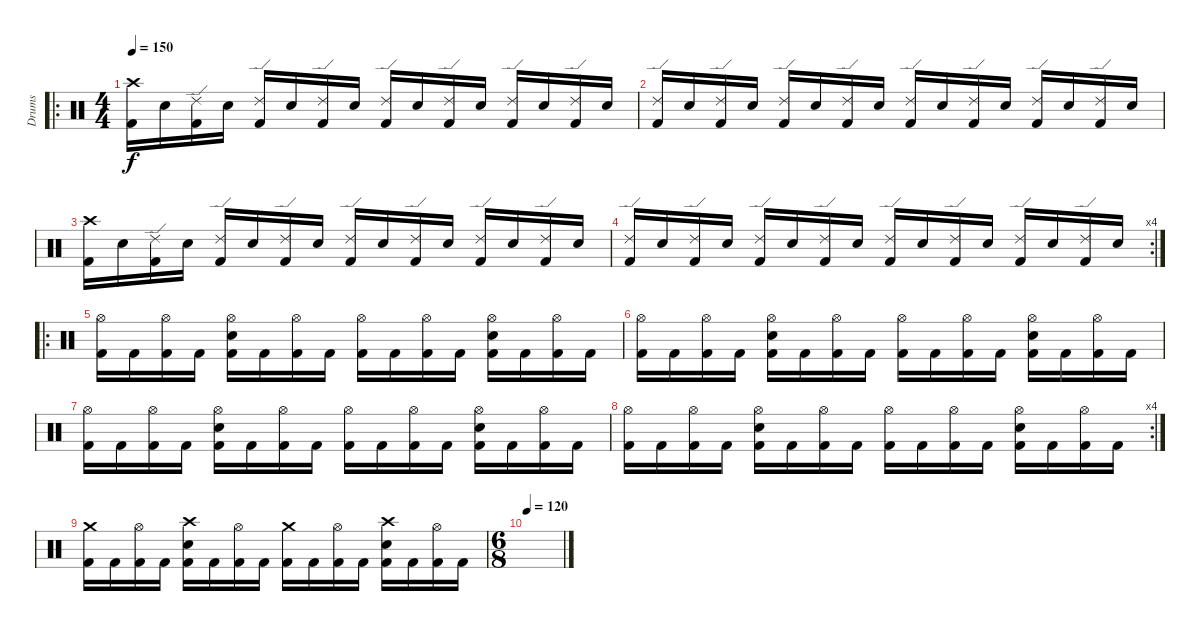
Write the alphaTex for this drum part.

\track ("Drums" "Drums") {instrument percussion}
\staff {score}
\articulation defaults
\ro
\ts (4 4)
\tempo 150
\clef neutral
\ks c
("Crash high (hit)" "Kick (hit) 2").16{dy f} "Electric Snare (hit)".16 ("Ride (edge) 2" "Kick (hit) 2").16 "Electric Snare (hit)".16 ("Ride (edge) 2" "Kick (hit) 2").16 "Electric Snare (hit)".16 ("Ride (edge) 2" "Kick (hit) 2").16 "Electric Snare (hit)".16 ("Ride (edge) 2" "Kick (hit) 2").16 "Electric Snare (hit)".16 ("Ride (edge) 2" "Kick (hit) 2").16 "Electric Snare (hit)".16 ("Ride (edge) 2" "Kick (hit) 2").16 "Electric Snare (hit)".16 ("Ride (edge) 2" "Kick (hit) 2").16 "Electric Snare (hit)".16 |
("Ride (edge) 2" "Kick (hit) 2").16 "Electric Snare (hit)".16 ("Ride (edge) 2" "Kick (hit) 2").16 "Electric Snare (hit)".16 ("Ride (edge) 2" "Kick (hit) 2").16 "Electric Snare (hit)".16 ("Ride (edge) 2" "Kick (hit) 2").16 "Electric Snare (hit)".16 ("Ride (edge) 2" "Kick (hit) 2").16 "Electric Snare (hit)".16 ("Ride (edge) 2" "Kick (hit) 2").16 "Electric Snare (hit)".16 ("Ride (edge) 2" "Kick (hit) 2").16 "Electric Snare (hit)".16 ("Ride (edge) 2" "Kick (hit) 2").16 "Electric Snare (hit)".16 |
("Crash high (hit)" "Kick (hit) 2").16 "Electric Snare (hit)".16 ("Ride (edge) 2" "Kick (hit) 2").16 "Electric Snare (hit)".16 ("Ride (edge) 2" "Kick (hit) 2").16 "Electric Snare (hit)".16 ("Ride (edge) 2" "Kick (hit) 2").16 "Electric Snare (hit)".16 ("Ride (edge) 2" "Kick (hit) 2").16 "Electric Snare (hit)".16 ("Ride (edge) 2" "Kick (hit) 2").16 "Electric Snare (hit)".16 ("Ride (edge) 2" "Kick (hit) 2").16 "Electric Snare (hit)".16 ("Ride (edge) 2" "Kick (hit) 2").16 "Electric Snare (hit)".16 |
\rc 4
("Ride (edge) 2" "Kick (hit) 2").16 "Electric Snare (hit)".16 ("Ride (edge) 2" "Kick (hit) 2").16 "Electric Snare (hit)".16 ("Ride (edge) 2" "Kick (hit) 2").16 "Electric Snare (hit)".16 ("Ride (edge) 2" "Kick (hit) 2").16 "Electric Snare (hit)".16 ("Ride (edge) 2" "Kick (hit) 2").16 "Electric Snare (hit)".16 ("Ride (edge) 2" "Kick (hit) 2").16 "Electric Snare (hit)".16 ("Ride (edge) 2" "Kick (hit) 2").16 "Electric Snare (hit)".16 ("Ride (edge) 2" "Kick (hit) 2").16 "Electric Snare (hit)".16 |
\ro
("Hi-Hat (open)" "Kick (hit) 2").16 "Kick (hit) 2".16 ("Hi-Hat (open)" "Kick (hit) 2").16 "Kick (hit) 2".16 ("Hi-Hat (open)" "Electric Snare (hit)" "Kick (hit) 2").16 "Kick (hit) 2".16 ("Hi-Hat (open)" "Kick (hit) 2").16 "Kick (hit) 2".16 ("Hi-Hat (open)" "Kick (hit) 2").16 "Kick (hit) 2".16 ("Hi-Hat (open)" "Kick (hit) 2").16 "Kick (hit) 2".16 ("Hi-Hat (open)" "Electric Snare (hit)" "Kick (hit) 2").16 "Kick (hit) 2".16 ("Hi-Hat (open)" "Kick (hit) 2").16 "Kick (hit) 2".16 |
("Hi-Hat (open)" "Kick (hit) 2").16 "Kick (hit) 2".16 ("Hi-Hat (open)" "Kick (hit) 2").16 "Kick (hit) 2".16 ("Hi-Hat (open)" "Electric Snare (hit)" "Kick (hit) 2").16 "Kick (hit) 2".16 ("Hi-Hat (open)" "Kick (hit) 2").16 "Kick (hit) 2".16 ("Hi-Hat (open)" "Kick (hit) 2").16 "Kick (hit) 2".16 ("Hi-Hat (open)" "Kick (hit) 2").16 "Kick (hit) 2".16 ("Hi-Hat (open)" "Electric Snare (hit)" "Kick (hit) 2").16 "Kick (hit) 2".16 ("Hi-Hat (open)" "Kick (hit) 2").16 "Kick (hit) 2".16 |
("Hi-Hat (open)" "Kick (hit) 2").16 "Kick (hit) 2".16 ("Hi-Hat (open)" "Kick (hit) 2").16 "Kick (hit) 2".16 ("Hi-Hat (open)" "Electric Snare (hit)" "Kick (hit) 2").16 "Kick (hit) 2".16 ("Hi-Hat (open)" "Kick (hit) 2").16 "Kick (hit) 2".16 ("Hi-Hat (open)" "Kick (hit) 2").16 "Kick (hit) 2".16 ("Hi-Hat (open)" "Kick (hit) 2").16 "Kick (hit) 2".16 ("Hi-Hat (open)" "Electric Snare (hit)" "Kick (hit) 2").16 "Kick (hit) 2".16 ("Hi-Hat (open)" "Kick (hit) 2").16 "Kick (hit) 2".16 |
\rc 4
("Hi-Hat (open)" "Kick (hit) 2").16 "Kick (hit) 2".16 ("Hi-Hat (open)" "Kick (hit) 2").16 "Kick (hit) 2".16 ("Hi-Hat (open)" "Electric Snare (hit)" "Kick (hit) 2").16 "Kick (hit) 2".16 ("Hi-Hat (open)" "Kick (hit) 2").16 "Kick (hit) 2".16 ("Hi-Hat (open)" "Kick (hit) 2").16 "Kick (hit) 2".16 ("Hi-Hat (open)" "Kick (hit) 2").16 "Kick (hit) 2".16 ("Hi-Hat (open)" "Electric Snare (hit)" "Kick (hit) 2").16 "Kick (hit) 2".16 ("Hi-Hat (open)" "Kick (hit) 2").16 "Kick (hit) 2".16 |
("Crash medium (hit)" "Kick (hit) 2").16 "Kick (hit) 2".16 ("Hi-Hat (open)" "Kick (hit) 2").16 "Kick (hit) 2".16 ("Crash high (hit)" "Electric Snare (hit)" "Kick (hit) 2").16 "Kick (hit) 2".16 ("Hi-Hat (open)" "Kick (hit) 2").16 "Kick (hit) 2".16 ("Crash medium (hit)" "Kick (hit) 2").16 "Kick (hit) 2".16 ("Hi-Hat (open)" "Kick (hit) 2").16 "Kick (hit) 2".16 ("Crash high (hit)" "Electric Snare (hit)" "Kick (hit) 2").16 "Kick (hit) 2".16 ("Hi-Hat (open)" "Kick (hit) 2").16 "Kick (hit) 2".16 |
\ts (6 8)
\tempo 120
